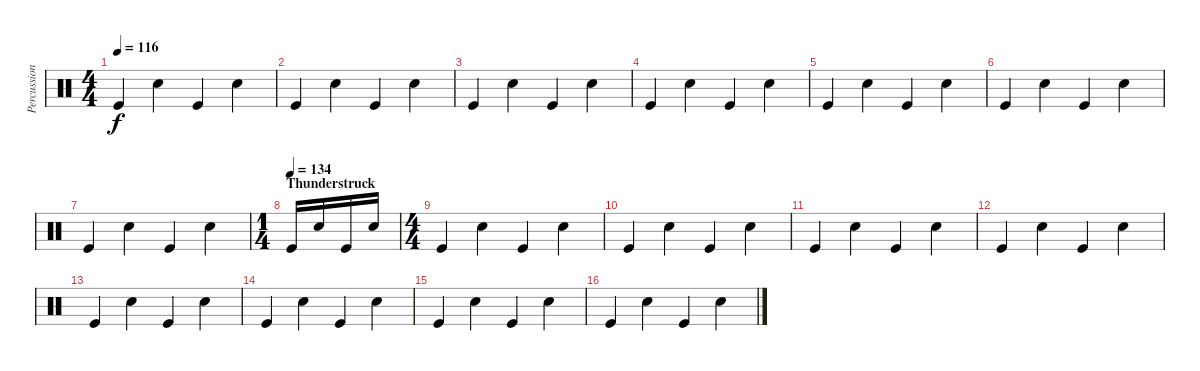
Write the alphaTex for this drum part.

\track ("Percussions" "Percussion") {instrument percussion}
\staff {score}
\articulation defaults
\ts (4 4)
\tempo 116
\clef neutral
\ks c "Kick (hit)".4{dy f} "Snare (hit) 2".4 "Kick (hit)".4 "Snare (hit) 2".4
|
"Kick (hit)".4 "Snare (hit) 2".4 "Kick (hit)".4 "Snare (hit) 2".4 |
"Kick (hit)".4 "Snare (hit) 2".4 "Kick (hit)".4 "Snare (hit) 2".4 |
"Kick (hit)".4 "Snare (hit) 2".4 "Kick (hit)".4 "Snare (hit) 2".4 |
"Kick (hit)".4 "Snare (hit) 2".4 "Kick (hit)".4 "Snare (hit) 2".4 |
"Kick (hit)".4 "Snare (hit) 2".4 "Kick (hit)".4 "Snare (hit) 2".4 |
"Kick (hit)".4 "Snare (hit) 2".4 "Kick (hit)".4 "Snare (hit) 2".4 |
\ts (1 4)
\section ("" "Thunderstruck")
\tempo (134)
"Kick (hit)".16 "Snare (hit) 2".16 "Kick (hit)".16 "Snare (hit) 2".16 |
\ts (4 4)
"Kick (hit)".4 "Snare (hit) 2".4 "Kick (hit)".4 "Snare (hit) 2".4 |
"Kick (hit)".4 "Snare (hit) 2".4 "Kick (hit)".4 "Snare (hit) 2".4 |
"Kick (hit)".4 "Snare (hit) 2".4 "Kick (hit)".4 "Snare (hit) 2".4 |
"Kick (hit)".4 "Snare (hit) 2".4 "Kick (hit)".4 "Snare (hit) 2".4 |
"Kick (hit)".4 "Snare (hit) 2".4 "Kick (hit)".4 "Snare (hit) 2".4 |
"Kick (hit)".4 "Snare (hit) 2".4 "Kick (hit)".4 "Snare (hit) 2".4 |
"Kick (hit)".4 "Snare (hit) 2".4 "Kick (hit)".4 "Snare (hit) 2".4 |
"Kick (hit)".4 "Snare (hit) 2".4 "Kick (hit)".4 "Snare (hit) 2".4
